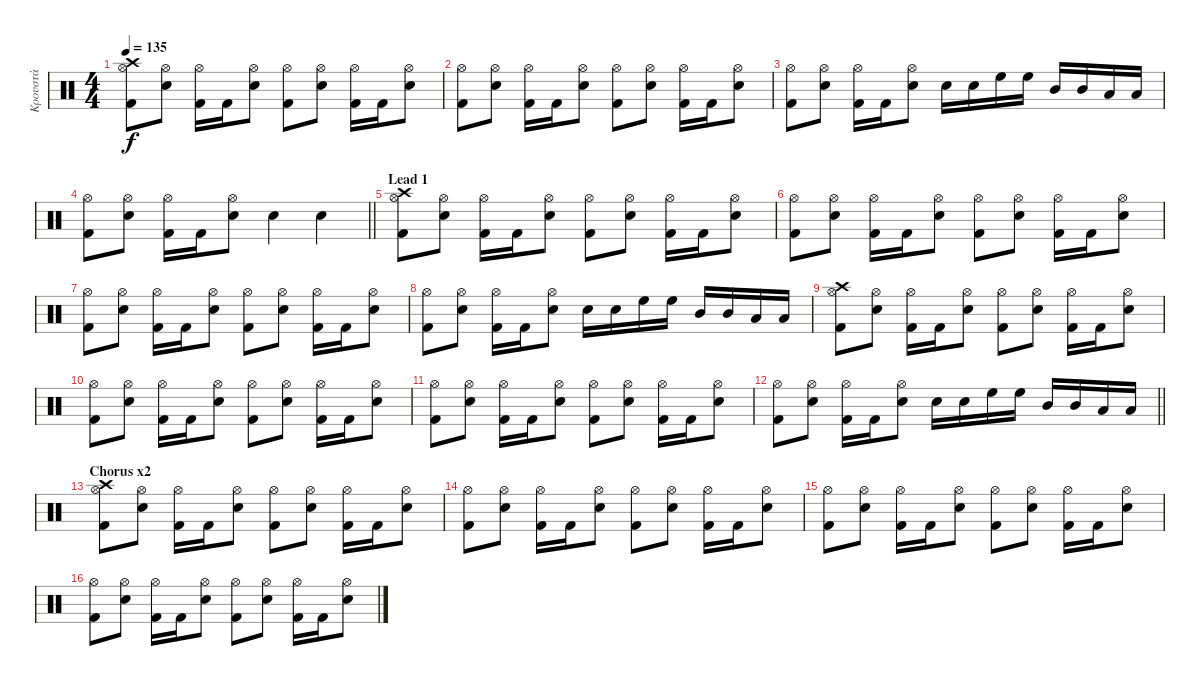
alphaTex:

\track ("Κρουστά" "Κρουστά") {instrument percussion}
\staff {score}
\articulation defaults
\ts (4 4)
\tempo 135
\clef neutral
\ks c
("Crash high (hit)" "Hi-Hat (open)" "Kick (hit) 2").8{dy f} ("Snare (hit) 2" "Hi-Hat (open)").8 ("Hi-Hat (open)" "Kick (hit) 2").16 "Kick (hit) 2".16 ("Snare (hit) 2" "Hi-Hat (open)").8 ("Hi-Hat (open)" "Kick (hit) 2").8 ("Snare (hit) 2" "Hi-Hat (open)").8 ("Hi-Hat (open)" "Kick (hit) 2").16 "Kick (hit) 2".16 ("Snare (hit) 2" "Hi-Hat (open)").8 |
("Hi-Hat (open)" "Kick (hit) 2").8 ("Snare (hit) 2" "Hi-Hat (open)").8 ("Hi-Hat (open)" "Kick (hit) 2").16 "Kick (hit) 2".16 ("Snare (hit) 2" "Hi-Hat (open)").8 ("Hi-Hat (open)" "Kick (hit) 2").8 ("Snare (hit) 2" "Hi-Hat (open)").8 ("Hi-Hat (open)" "Kick (hit) 2").16 "Kick (hit) 2".16 ("Snare (hit) 2" "Hi-Hat (open)").8 |
("Hi-Hat (open)" "Kick (hit) 2").8 ("Snare (hit) 2" "Hi-Hat (open)").8 ("Hi-Hat (open)" "Kick (hit) 2").16 "Kick (hit) 2".16 ("Snare (hit) 2" "Hi-Hat (open)").8 "Snare (hit) 2".16 "Snare (hit) 2".16 "High Floor Tom (hit)".16 "High Floor Tom (hit)".16 "Mid Tom (hit)".16 "Mid Tom (hit)".16 "Low Tom (hit)".16 "Low Tom (hit)".16 |
\barLineRight lightlight
("Hi-Hat (open)" "Kick (hit) 2").8 ("Snare (hit) 2" "Hi-Hat (open)").8 ("Hi-Hat (open)" "Kick (hit) 2").16 "Kick (hit) 2".16 ("Snare (hit) 2" "Hi-Hat (open)").8 "Snare (hit) 2".4 "Snare (hit) 2".4 |
\section ("" "Lead 1")
("Crash high (hit)" "Hi-Hat (open)" "Kick (hit) 2").8 ("Snare (hit) 2" "Hi-Hat (open)").8 ("Hi-Hat (open)" "Kick (hit) 2").16 "Kick (hit) 2".16 ("Snare (hit) 2" "Hi-Hat (open)").8 ("Hi-Hat (open)" "Kick (hit) 2").8 ("Snare (hit) 2" "Hi-Hat (open)").8 ("Hi-Hat (open)" "Kick (hit) 2").16 "Kick (hit) 2".16 ("Snare (hit) 2" "Hi-Hat (open)").8 |
("Hi-Hat (open)" "Kick (hit) 2").8 ("Snare (hit) 2" "Hi-Hat (open)").8 ("Hi-Hat (open)" "Kick (hit) 2").16 "Kick (hit) 2".16 ("Snare (hit) 2" "Hi-Hat (open)").8 ("Hi-Hat (open)" "Kick (hit) 2").8 ("Snare (hit) 2" "Hi-Hat (open)").8 ("Hi-Hat (open)" "Kick (hit) 2").16 "Kick (hit) 2".16 ("Snare (hit) 2" "Hi-Hat (open)").8 |
("Hi-Hat (open)" "Kick (hit) 2").8 ("Snare (hit) 2" "Hi-Hat (open)").8 ("Hi-Hat (open)" "Kick (hit) 2").16 "Kick (hit) 2".16 ("Snare (hit) 2" "Hi-Hat (open)").8 ("Hi-Hat (open)" "Kick (hit) 2").8 ("Snare (hit) 2" "Hi-Hat (open)").8 ("Hi-Hat (open)" "Kick (hit) 2").16 "Kick (hit) 2".16 ("Snare (hit) 2" "Hi-Hat (open)").8 |
("Hi-Hat (open)" "Kick (hit) 2").8 ("Snare (hit) 2" "Hi-Hat (open)").8 ("Hi-Hat (open)" "Kick (hit) 2").16 "Kick (hit) 2".16 ("Snare (hit) 2" "Hi-Hat (open)").8 "Snare (hit) 2".16 "Snare (hit) 2".16 "High Floor Tom (hit)".16 "High Floor Tom (hit)".16 "Mid Tom (hit)".16 "Mid Tom (hit)".16 "Low Tom (hit)".16 "Low Tom (hit)".16 |
("Crash high (hit)" "Hi-Hat (open)" "Kick (hit) 2").8 ("Snare (hit) 2" "Hi-Hat (open)").8 ("Hi-Hat (open)" "Kick (hit) 2").16 "Kick (hit) 2".16 ("Snare (hit) 2" "Hi-Hat (open)").8 ("Hi-Hat (open)" "Kick (hit) 2").8 ("Snare (hit) 2" "Hi-Hat (open)").8 ("Hi-Hat (open)" "Kick (hit) 2").16 "Kick (hit) 2".16 ("Snare (hit) 2" "Hi-Hat (open)").8 |
("Hi-Hat (open)" "Kick (hit) 2").8 ("Snare (hit) 2" "Hi-Hat (open)").8 ("Hi-Hat (open)" "Kick (hit) 2").16 "Kick (hit) 2".16 ("Snare (hit) 2" "Hi-Hat (open)").8 ("Hi-Hat (open)" "Kick (hit) 2").8 ("Snare (hit) 2" "Hi-Hat (open)").8 ("Hi-Hat (open)" "Kick (hit) 2").16 "Kick (hit) 2".16 ("Snare (hit) 2" "Hi-Hat (open)").8 |
("Hi-Hat (open)" "Kick (hit) 2").8 ("Snare (hit) 2" "Hi-Hat (open)").8 ("Hi-Hat (open)" "Kick (hit) 2").16 "Kick (hit) 2".16 ("Snare (hit) 2" "Hi-Hat (open)").8 ("Hi-Hat (open)" "Kick (hit) 2").8 ("Snare (hit) 2" "Hi-Hat (open)").8 ("Hi-Hat (open)" "Kick (hit) 2").16 "Kick (hit) 2".16 ("Snare (hit) 2" "Hi-Hat (open)").8 |
\barLineRight lightlight
("Hi-Hat (open)" "Kick (hit) 2").8 ("Snare (hit) 2" "Hi-Hat (open)").8 ("Hi-Hat (open)" "Kick (hit) 2").16 "Kick (hit) 2".16 ("Snare (hit) 2" "Hi-Hat (open)").8 "Snare (hit) 2".16 "Snare (hit) 2".16 "High Floor Tom (hit)".16 "High Floor Tom (hit)".16 "Mid Tom (hit)".16 "Mid Tom (hit)".16 "Low Tom (hit)".16 "Low Tom (hit)".16 |
\section ("" "Chorus x2")
("Crash high (hit)" "Hi-Hat (open)" "Kick (hit) 2").8 ("Snare (hit) 2" "Hi-Hat (open)").8 ("Hi-Hat (open)" "Kick (hit) 2").16 "Kick (hit) 2".16 ("Snare (hit) 2" "Hi-Hat (open)").8 ("Hi-Hat (open)" "Kick (hit) 2").8 ("Snare (hit) 2" "Hi-Hat (open)").8 ("Hi-Hat (open)" "Kick (hit) 2").16 "Kick (hit) 2".16 ("Snare (hit) 2" "Hi-Hat (open)").8 |
("Hi-Hat (open)" "Kick (hit) 2").8 ("Snare (hit) 2" "Hi-Hat (open)").8 ("Hi-Hat (open)" "Kick (hit) 2").16 "Kick (hit) 2".16 ("Snare (hit) 2" "Hi-Hat (open)").8 ("Hi-Hat (open)" "Kick (hit) 2").8 ("Snare (hit) 2" "Hi-Hat (open)").8 ("Hi-Hat (open)" "Kick (hit) 2").16 "Kick (hit) 2".16 ("Snare (hit) 2" "Hi-Hat (open)").8 |
("Hi-Hat (open)" "Kick (hit) 2").8 ("Snare (hit) 2" "Hi-Hat (open)").8 ("Hi-Hat (open)" "Kick (hit) 2").16 "Kick (hit) 2".16 ("Snare (hit) 2" "Hi-Hat (open)").8 ("Hi-Hat (open)" "Kick (hit) 2").8 ("Snare (hit) 2" "Hi-Hat (open)").8 ("Hi-Hat (open)" "Kick (hit) 2").16 "Kick (hit) 2".16 ("Snare (hit) 2" "Hi-Hat (open)").8 |
("Hi-Hat (open)" "Kick (hit) 2").8 ("Snare (hit) 2" "Hi-Hat (open)").8 ("Hi-Hat (open)" "Kick (hit) 2").16 "Kick (hit) 2".16 ("Snare (hit) 2" "Hi-Hat (open)").8 ("Hi-Hat (open)" "Kick (hit) 2").8 ("Snare (hit) 2" "Hi-Hat (open)").8 ("Hi-Hat (open)" "Kick (hit) 2").16 "Kick (hit) 2".16 ("Snare (hit) 2" "Hi-Hat (open)").8
